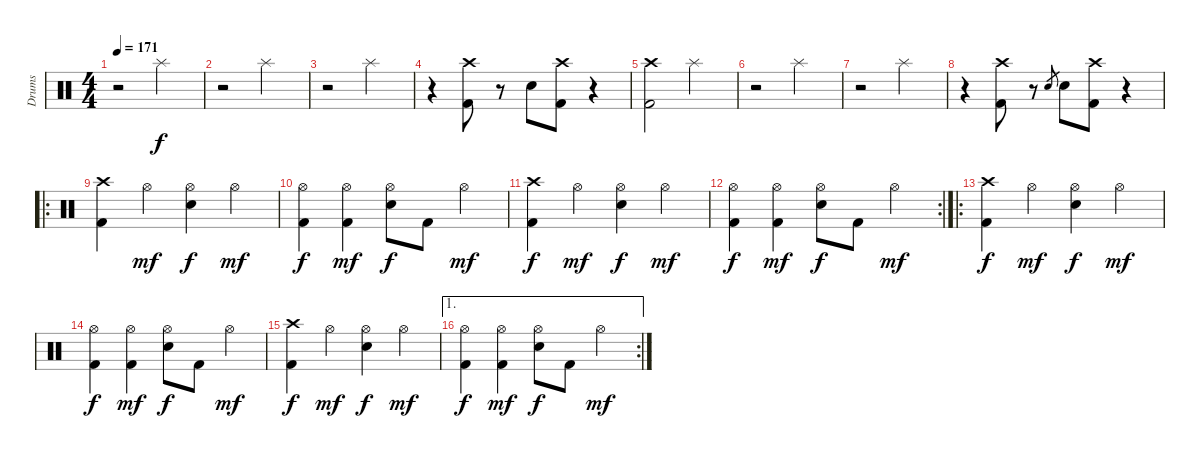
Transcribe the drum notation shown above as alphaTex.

\track ("Drums" "Drums") {instrument percussion}
\staff {score}
\articulation defaults
\ts (4 4)
\tempo 171
\clef neutral
\ks c
r.2{dy f} "Splash (hit)".2 |
r.2 "Splash (hit)".2 |
r.2 "Splash (hit)".2 |
r.4 ("Crash high (hit)" "Kick (hit) 2").8 r.8 "Electric Snare (hit)".8 ("Crash high (hit)" "Kick (hit) 2").8 r.4 |
("Crash high (hit)" "Kick (hit) 2").2 "Splash (hit)".2 |
r.2 "Splash (hit)".2 |
r.2 "Splash (hit)".2 |
r.4 ("Crash high (hit)" "Kick (hit) 2").8 r.8 "Electric Snare (hit)".8{gr} "Electric Snare (hit)".8 ("Crash high (hit)" "Kick (hit) 2").8 r.4 |
\ro
("Crash high (hit)" "Kick (hit) 2").4 "Hi-Hat (open)".4{dy mf} ("Hi-Hat (open)" "Electric Snare (hit)").4{dy f} "Hi-Hat (open)".4{dy mf} |
("Hi-Hat (open)" "Kick (hit) 2").4{dy f} ("Hi-Hat (open)" "Kick (hit) 2").4{dy mf} ("Hi-Hat (open)" "Electric Snare (hit)").8{dy f} "Kick (hit) 2".8 "Hi-Hat (open)".4{dy mf} |
("Crash high (hit)" "Kick (hit) 2").4{dy f} "Hi-Hat (open)".4{dy mf} ("Hi-Hat (open)" "Electric Snare (hit)").4{dy f} "Hi-Hat (open)".4{dy mf} |
\rc 2
("Hi-Hat (open)" "Kick (hit) 2").4{dy f} ("Hi-Hat (open)" "Kick (hit) 2").4{dy mf} ("Hi-Hat (open)" "Electric Snare (hit)").8{dy f} "Kick (hit) 2".8 "Hi-Hat (open)".4{dy mf} |
\ro
("Crash high (hit)" "Kick (hit) 2").4{dy f} "Hi-Hat (open)".4{dy mf} ("Hi-Hat (open)" "Electric Snare (hit)").4{dy f} "Hi-Hat (open)".4{dy mf} |
("Hi-Hat (open)" "Kick (hit) 2").4{dy f} ("Hi-Hat (open)" "Kick (hit) 2").4{dy mf} ("Hi-Hat (open)" "Electric Snare (hit)").8{dy f} "Kick (hit) 2".8 "Hi-Hat (open)".4{dy mf} |
("Crash high (hit)" "Kick (hit) 2").4{dy f} "Hi-Hat (open)".4{dy mf} ("Hi-Hat (open)" "Electric Snare (hit)").4{dy f} "Hi-Hat (open)".4{dy mf} |
\ae 1
\rc 2
("Hi-Hat (open)" "Kick (hit) 2").4{dy f} ("Hi-Hat (open)" "Kick (hit) 2").4{dy mf} ("Hi-Hat (open)" "Electric Snare (hit)").8{dy f} "Kick (hit) 2".8 "Hi-Hat (open)".4{dy mf}
